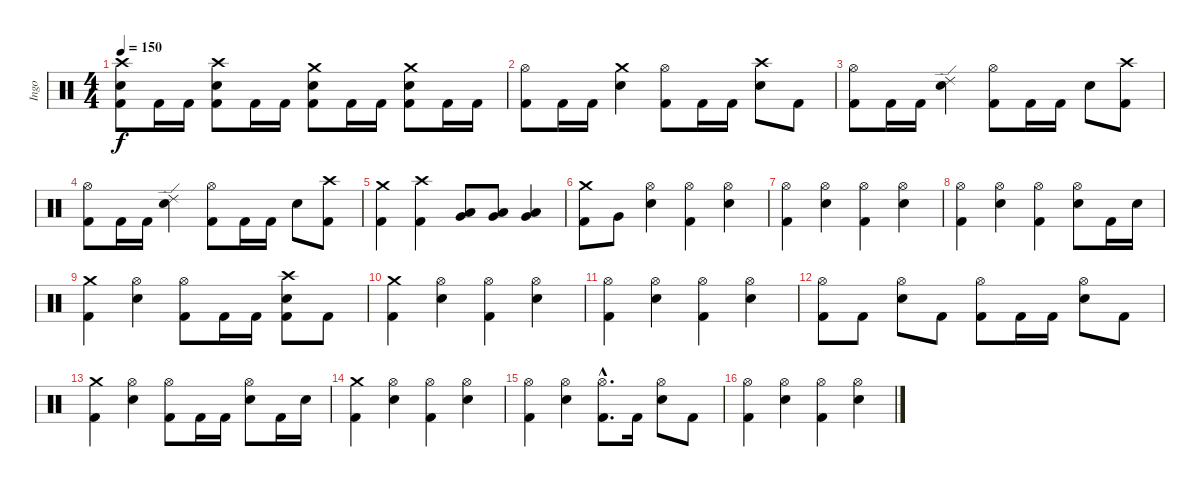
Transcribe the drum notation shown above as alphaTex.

\track ("Ingo" "Ingo") {instrument percussion}
\staff {score}
\articulation defaults
\ts (4 4)
\tempo 150
\clef neutral
\ks c
("Crash high (hit)" "Electric Snare (hit)" "Kick (hit) 2").8{dy f} "Kick (hit) 2".16 "Kick (hit) 2".16 ("Crash high (hit)" "Electric Snare (hit)" "Kick (hit) 2").8 "Kick (hit) 2".16 "Kick (hit) 2".16 ("Crash medium (hit)" "Electric Snare (hit)" "Kick (hit) 2").8 "Kick (hit) 2".16 "Kick (hit) 2".16 ("Crash medium (hit)" "Electric Snare (hit)" "Kick (hit) 2").8 "Kick (hit) 2".16 "Kick (hit) 2".16 |
("Hi-Hat (open)" "Kick (hit) 2").8 "Kick (hit) 2".16 "Kick (hit) 2".16 ("Crash medium (hit)" "Electric Snare (hit)").4 ("Hi-Hat (open)" "Kick (hit) 2").8 "Kick (hit) 2".16 "Kick (hit) 2".16 ("Crash high (hit)" "Electric Snare (hit)").8 "Kick (hit) 2".8 |
("Hi-Hat (open)" "Kick (hit) 2").8 "Kick (hit) 2".16 "Kick (hit) 2".16 ("Ride (edge) 2" "Electric Snare (hit)").4 ("Hi-Hat (open)" "Kick (hit) 2").8 "Kick (hit) 2".16 "Kick (hit) 2".16 "Electric Snare (hit)".8 ("Crash high (hit)" "Kick (hit) 2").8 |
("Hi-Hat (open)" "Kick (hit) 2").8 "Kick (hit) 2".16 "Kick (hit) 2".16 ("Ride (edge) 2" "Electric Snare (hit)").4 ("Hi-Hat (open)" "Kick (hit) 2").8 "Kick (hit) 2".16 "Kick (hit) 2".16 "Electric Snare (hit)".8 ("Crash high (hit)" "Kick (hit) 2").8 |
("Crash medium (hit)" "Kick (hit) 2").4 ("Crash high (hit)" "Kick (hit) 2").4 ("Low Tom (hit)" "Very Low Tom (hit)").8 ("Low Tom (hit)" "Very Low Tom (hit)").8 ("Low Tom (hit)" "Very Low Tom (hit)").4 |
("Crash medium (hit)" "Kick (hit) 2").8 "Very Low Tom (hit)".8 ("Hi-Hat (open)" "Electric Snare (hit)").4 ("Hi-Hat (open)" "Kick (hit) 2").4 ("Hi-Hat (open)" "Electric Snare (hit)").4 |
("Hi-Hat (open)" "Kick (hit) 2").4 ("Hi-Hat (open)" "Electric Snare (hit)").4 ("Hi-Hat (open)" "Kick (hit) 2").4 ("Hi-Hat (open)" "Electric Snare (hit)").4 |
("Hi-Hat (open)" "Kick (hit) 2").4 ("Hi-Hat (open)" "Electric Snare (hit)").4 ("Hi-Hat (open)" "Kick (hit) 2").4 ("Hi-Hat (open)" "Electric Snare (hit)").8 "Kick (hit) 2".16 "Electric Snare (hit)".16 |
("Crash medium (hit)" "Kick (hit) 2").4 ("Hi-Hat (open)" "Electric Snare (hit)").4 ("Hi-Hat (open)" "Kick (hit) 2").8 "Kick (hit) 2".16 "Kick (hit) 2".16 ("Crash high (hit)" "Electric Snare (hit)" "Kick (hit) 2").8 "Kick (hit) 2".8 |
("Crash medium (hit)" "Kick (hit) 2").4 ("Hi-Hat (open)" "Electric Snare (hit)").4 ("Hi-Hat (open)" "Kick (hit) 2").4 ("Hi-Hat (open)" "Electric Snare (hit)").4 |
("Hi-Hat (open)" "Kick (hit) 2").4 ("Hi-Hat (open)" "Electric Snare (hit)").4 ("Hi-Hat (open)" "Kick (hit) 2").4 ("Hi-Hat (open)" "Electric Snare (hit)").4 |
("Hi-Hat (open)" "Kick (hit) 2").8 "Kick (hit) 2".8 ("Hi-Hat (open)" "Electric Snare (hit)").8 "Kick (hit) 2".8 ("Hi-Hat (open)" "Kick (hit) 2").8 "Kick (hit) 2".16 "Kick (hit) 2".16 ("Hi-Hat (open)" "Electric Snare (hit)").8 "Kick (hit) 2".8 |
("Crash medium (hit)" "Kick (hit) 2").4 ("Hi-Hat (open)" "Electric Snare (hit)").4 ("Hi-Hat (open)" "Kick (hit) 2").8 "Kick (hit) 2".16 "Kick (hit) 2".16 ("Hi-Hat (open)" "Electric Snare (hit)").8 "Kick (hit) 2".16 "Electric Snare (hit)".16 |
("Crash medium (hit)" "Kick (hit) 2").4 ("Hi-Hat (open)" "Electric Snare (hit)").4 ("Hi-Hat (open)" "Kick (hit) 2").4 ("Hi-Hat (open)" "Electric Snare (hit)").4 |
("Hi-Hat (open)" "Kick (hit) 2").4 ("Hi-Hat (open)" "Electric Snare (hit)").4 ("Hi-Hat (open)"{hac} "Kick (hit) 2"{hac}).8{d} "Kick (hit) 2".16 ("Hi-Hat (open)" "Electric Snare (hit)").8 "Kick (hit) 2".8 |
("Hi-Hat (open)" "Kick (hit) 2").4 ("Hi-Hat (open)" "Electric Snare (hit)").4 ("Hi-Hat (open)" "Kick (hit) 2").4 ("Hi-Hat (open)" "Electric Snare (hit)").4
